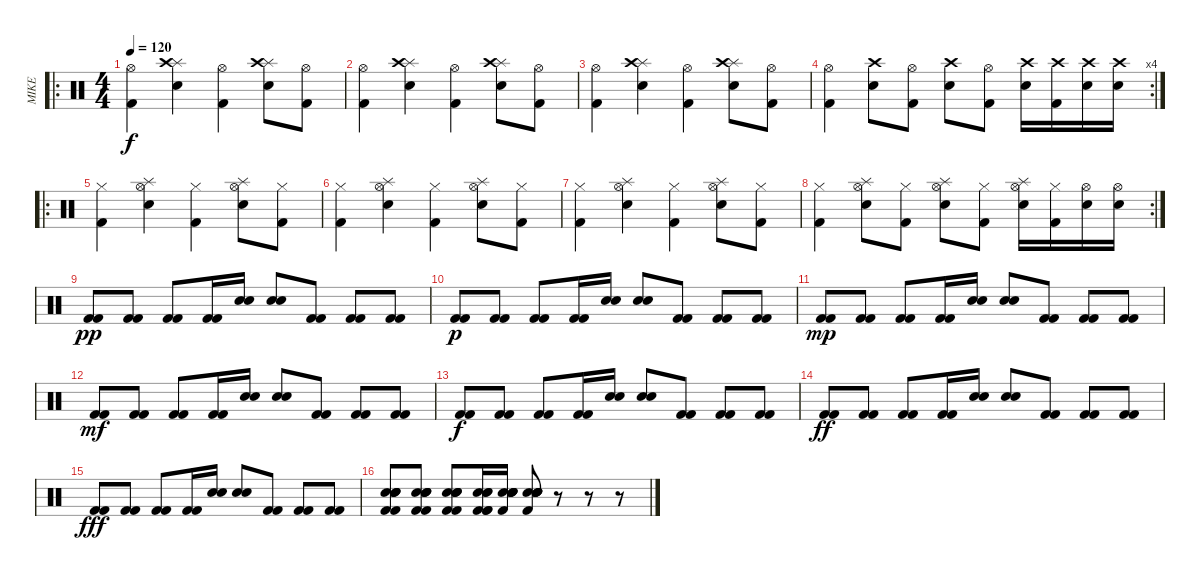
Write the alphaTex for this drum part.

\track ("MIKE" "MIKE") {instrument percussion}
\staff {score}
\articulation defaults
\ro
\ts (4 4)
\tempo 120
\clef neutral
\ks c
("Hi-Hat (open)" "Kick (hit) 2").4{dy f} ("Splash (hit)" "Crash high (hit)" "Snare (hit) 2").4 ("Hi-Hat (open)" "Kick (hit) 2").4 ("Splash (hit)" "Crash high (hit)" "Snare (hit) 2").8 ("Hi-Hat (open)" "Kick (hit) 2").8 |
("Hi-Hat (open)" "Kick (hit) 2").4 ("Splash (hit)" "Crash high (hit)" "Snare (hit) 2").4 ("Hi-Hat (open)" "Kick (hit) 2").4 ("Splash (hit)" "Crash high (hit)" "Snare (hit) 2").8 ("Hi-Hat (open)" "Kick (hit) 2").8 |
("Hi-Hat (open)" "Kick (hit) 2").4 ("Splash (hit)" "Crash high (hit)" "Snare (hit) 2").4 ("Hi-Hat (open)" "Kick (hit) 2").4 ("Splash (hit)" "Crash high (hit)" "Snare (hit) 2").8 ("Hi-Hat (open)" "Kick (hit) 2").8 |
\rc 4
("Hi-Hat (open)" "Kick (hit) 2").4 ("Crash high (hit)" "Snare (hit) 2").8 ("Hi-Hat (open)" "Kick (hit) 2").8 ("Crash high (hit)" "Snare (hit) 2").8 ("Hi-Hat (open)" "Kick (hit) 2").8 ("Crash high (hit)" "Snare (hit) 2").16 ("Crash high (hit)" "Kick (hit) 2").16 ("Crash high (hit)" "Snare (hit) 2").16 ("Crash high (hit)" "Snare (hit) 2").16 |
\ro
("Hi-Hat (closed)" "Kick (hit) 2").4 ("Splash (hit)" "Hi-Hat (open)" "Snare (hit) 2").4 ("Hi-Hat (closed)" "Kick (hit) 2").4 ("Splash (hit)" "Hi-Hat (open)" "Snare (hit) 2").8 ("Hi-Hat (closed)" "Kick (hit) 2").8 |
("Hi-Hat (closed)" "Kick (hit) 2").4 ("Splash (hit)" "Hi-Hat (open)" "Snare (hit) 2").4 ("Hi-Hat (closed)" "Kick (hit) 2").4 ("Splash (hit)" "Hi-Hat (open)" "Snare (hit) 2").8 ("Hi-Hat (closed)" "Kick (hit) 2").8 |
("Hi-Hat (closed)" "Kick (hit) 2").4 ("Splash (hit)" "Hi-Hat (open)" "Snare (hit) 2").4 ("Hi-Hat (closed)" "Kick (hit) 2").4 ("Splash (hit)" "Hi-Hat (open)" "Snare (hit) 2").8 ("Hi-Hat (closed)" "Kick (hit) 2").8 |
\rc 2
("Hi-Hat (closed)" "Kick (hit) 2").4 ("Splash (hit)" "Hi-Hat (open)" "Snare (hit) 2").8 ("Hi-Hat (closed)" "Kick (hit) 2").8 ("Splash (hit)" "Hi-Hat (open)" "Snare (hit) 2").8 ("Hi-Hat (closed)" "Kick (hit) 2").8 ("Splash (hit)" "Hi-Hat (open)" "Snare (hit) 2").16 ("Hi-Hat (closed)" "Kick (hit) 2").16 ("Hi-Hat (open)" "Snare (hit) 2").16 ("Hi-Hat (open)" "Snare (hit) 2").16 |
("Kick (hit) 2" "Kick (hit) 2").8{dy pp} ("Kick (hit) 2" "Kick (hit) 2").8 ("Kick (hit) 2" "Kick (hit) 2").8 ("Kick (hit) 2" "Kick (hit) 2").16 ("Snare (hit) 2" "Snare (hit) 2").16 ("Snare (hit) 2" "Snare (hit) 2").8 ("Kick (hit) 2" "Kick (hit) 2").8 ("Kick (hit) 2" "Kick (hit) 2").8 ("Kick (hit) 2" "Kick (hit) 2").8 |
("Kick (hit) 2" "Kick (hit) 2").8{dy p} ("Kick (hit) 2" "Kick (hit) 2").8 ("Kick (hit) 2" "Kick (hit) 2").8 ("Kick (hit) 2" "Kick (hit) 2").16 ("Snare (hit) 2" "Snare (hit) 2").16 ("Snare (hit) 2" "Snare (hit) 2").8 ("Kick (hit) 2" "Kick (hit) 2").8 ("Kick (hit) 2" "Kick (hit) 2").8 ("Kick (hit) 2" "Kick (hit) 2").8 |
("Kick (hit) 2" "Kick (hit) 2").8{dy mp} ("Kick (hit) 2" "Kick (hit) 2").8 ("Kick (hit) 2" "Kick (hit) 2").8 ("Kick (hit) 2" "Kick (hit) 2").16 ("Snare (hit) 2" "Snare (hit) 2").16 ("Snare (hit) 2" "Snare (hit) 2").8 ("Kick (hit) 2" "Kick (hit) 2").8 ("Kick (hit) 2" "Kick (hit) 2").8 ("Kick (hit) 2" "Kick (hit) 2").8 |
("Kick (hit) 2" "Kick (hit) 2").8{dy mf} ("Kick (hit) 2" "Kick (hit) 2").8 ("Kick (hit) 2" "Kick (hit) 2").8 ("Kick (hit) 2" "Kick (hit) 2").16 ("Snare (hit) 2" "Snare (hit) 2").16 ("Snare (hit) 2" "Snare (hit) 2").8 ("Kick (hit) 2" "Kick (hit) 2").8 ("Kick (hit) 2" "Kick (hit) 2").8 ("Kick (hit) 2" "Kick (hit) 2").8 |
("Kick (hit) 2" "Kick (hit) 2").8{dy f} ("Kick (hit) 2" "Kick (hit) 2").8 ("Kick (hit) 2" "Kick (hit) 2").8 ("Kick (hit) 2" "Kick (hit) 2").16 ("Snare (hit) 2" "Snare (hit) 2").16 ("Snare (hit) 2" "Snare (hit) 2").8 ("Kick (hit) 2" "Kick (hit) 2").8 ("Kick (hit) 2" "Kick (hit) 2").8 ("Kick (hit) 2" "Kick (hit) 2").8 |
("Kick (hit) 2" "Kick (hit) 2").8{dy ff} ("Kick (hit) 2" "Kick (hit) 2").8 ("Kick (hit) 2" "Kick (hit) 2").8 ("Kick (hit) 2" "Kick (hit) 2").16 ("Snare (hit) 2" "Snare (hit) 2").16 ("Snare (hit) 2" "Snare (hit) 2").8 ("Kick (hit) 2" "Kick (hit) 2").8 ("Kick (hit) 2" "Kick (hit) 2").8 ("Kick (hit) 2" "Kick (hit) 2").8 |
("Kick (hit) 2" "Kick (hit) 2").8{dy fff} ("Kick (hit) 2" "Kick (hit) 2").8 ("Kick (hit) 2" "Kick (hit) 2").8 ("Kick (hit) 2" "Kick (hit) 2").16 ("Snare (hit) 2" "Snare (hit) 2").16 ("Snare (hit) 2" "Snare (hit) 2").8 ("Kick (hit) 2" "Kick (hit) 2").8 ("Kick (hit) 2" "Kick (hit) 2").8 ("Kick (hit) 2" "Kick (hit) 2").8 |
("Electric Snare (hit)" "Electric Snare (hit)" "Electric Snare (hit)" "Electric Snare (hit)" "Kick (hit) 2" "Kick (hit) 2").8 ("Electric Snare (hit)" "Electric Snare (hit)" "Electric Snare (hit)" "Electric Snare (hit)" "Kick (hit) 2" "Kick (hit) 2").8 ("Electric Snare (hit)" "Electric Snare (hit)" "Electric Snare (hit)" "Electric Snare (hit)" "Kick (hit) 2" "Kick (hit) 2").8 ("Kick (hit) 2" "Electric Snare (hit)" "Electric Snare (hit)" "Electric Snare (hit)" "Kick (hit) 2" "Kick (hit) 2").16 ("Kick (hit) 2" "Electric Snare (hit)" "Electric Snare (hit)" "Electric Snare (hit)" "Snare (hit) 2" "Snare (hit) 2").16 ("Kick (hit) 2" "Electric Snare (hit)" "Electric Snare (hit)" "Electric Snare (hit)" "Snare (hit) 2" "Snare (hit) 2").8 r.8 r.8 r.8
